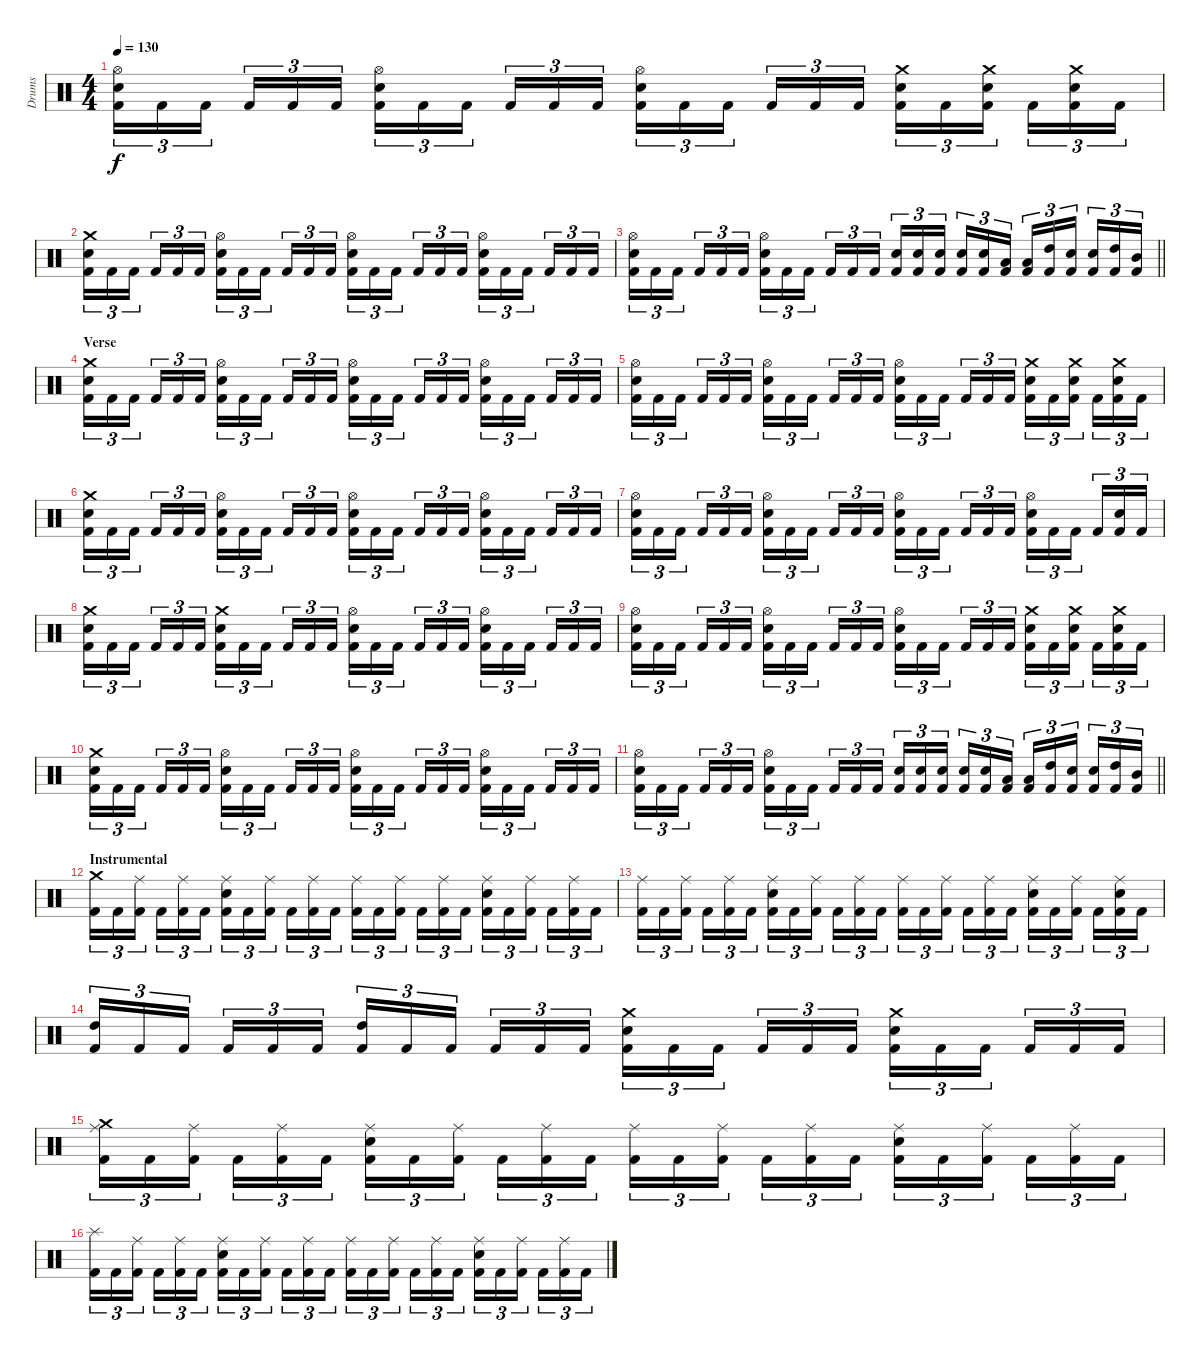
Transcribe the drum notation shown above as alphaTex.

\track ("Drums" "Drums") {instrument percussion}
\staff {score}
\articulation defaults
\ts (4 4)
\tempo 130
\clef neutral
\ks c
("Kick (hit) 2" "Electric Snare (hit)" "Hi-Hat (open)").16{tu (3 2) dy f} "Kick (hit) 2".16{tu (3 2)} "Kick (hit) 2".16{tu (3 2)} "Kick (hit) 2".16{tu (3 2)} "Kick (hit) 2".16{tu (3 2)} "Kick (hit) 2".16{tu (3 2)} ("Kick (hit) 2" "Electric Snare (hit)" "Hi-Hat (open)").16{tu (3 2)} "Kick (hit) 2".16{tu (3 2)} "Kick (hit) 2".16{tu (3 2)} "Kick (hit) 2".16{tu (3 2)} "Kick (hit) 2".16{tu (3 2)} "Kick (hit) 2".16{tu (3 2)} ("Kick (hit) 2" "Electric Snare (hit)" "Hi-Hat (open)").16{tu (3 2)} "Kick (hit) 2".16{tu (3 2)} "Kick (hit) 2".16{tu (3 2)} "Kick (hit) 2".16{tu (3 2)} "Kick (hit) 2".16{tu (3 2)} "Kick (hit) 2".16{tu (3 2)} ("Kick (hit) 2" "Electric Snare (hit)" "Crash medium (hit)").16{tu (3 2)} "Kick (hit) 2".16{tu (3 2)} ("Kick (hit) 2" "Electric Snare (hit)" "Crash medium (hit)").16{tu (3 2)} "Kick (hit) 2".16{tu (3 2)} ("Kick (hit) 2" "Electric Snare (hit)" "Crash medium (hit)").16{tu (3 2)} "Kick (hit) 2".16{tu (3 2)} |
("Kick (hit) 2" "Electric Snare (hit)" "Crash medium (hit)").16{tu (3 2)} "Kick (hit) 2".16{tu (3 2)} "Kick (hit) 2".16{tu (3 2)} "Kick (hit) 2".16{tu (3 2)} "Kick (hit) 2".16{tu (3 2)} "Kick (hit) 2".16{tu (3 2)} ("Kick (hit) 2" "Electric Snare (hit)" "Hi-Hat (open)").16{tu (3 2)} "Kick (hit) 2".16{tu (3 2)} "Kick (hit) 2".16{tu (3 2)} "Kick (hit) 2".16{tu (3 2)} "Kick (hit) 2".16{tu (3 2)} "Kick (hit) 2".16{tu (3 2)} ("Kick (hit) 2" "Electric Snare (hit)" "Hi-Hat (open)").16{tu (3 2)} "Kick (hit) 2".16{tu (3 2)} "Kick (hit) 2".16{tu (3 2)} "Kick (hit) 2".16{tu (3 2)} "Kick (hit) 2".16{tu (3 2)} "Kick (hit) 2".16{tu (3 2)} ("Kick (hit) 2" "Electric Snare (hit)" "Hi-Hat (open)").16{tu (3 2)} "Kick (hit) 2".16{tu (3 2)} "Kick (hit) 2".16{tu (3 2)} "Kick (hit) 2".16{tu (3 2)} "Kick (hit) 2".16{tu (3 2)} "Kick (hit) 2".16{tu (3 2)} |
\barLineRight lightlight
("Kick (hit) 2" "Electric Snare (hit)" "Hi-Hat (open)").16{tu (3 2)} "Kick (hit) 2".16{tu (3 2)} "Kick (hit) 2".16{tu (3 2)} "Kick (hit) 2".16{tu (3 2)} "Kick (hit) 2".16{tu (3 2)} "Kick (hit) 2".16{tu (3 2)} ("Kick (hit) 2" "Electric Snare (hit)" "Hi-Hat (open)").16{tu (3 2)} "Kick (hit) 2".16{tu (3 2)} "Kick (hit) 2".16{tu (3 2)} "Kick (hit) 2".16{tu (3 2)} "Kick (hit) 2".16{tu (3 2)} "Kick (hit) 2".16{tu (3 2)} ("Kick (hit) 2" "Electric Snare (hit)").16{tu (3 2)} ("Kick (hit) 2" "Electric Snare (hit)").16{tu (3 2)} ("Kick (hit) 2" "Electric Snare (hit)").16{tu (3 2)} ("Kick (hit) 2" "Electric Snare (hit)").16{tu (3 2)} ("Kick (hit) 2" "Electric Snare (hit)").16{tu (3 2)} ("Kick (hit) 2" "Low Tom (hit)").16{tu (3 2)} ("Kick (hit) 2" "Low Tom (hit)").16{tu (3 2)} ("Kick (hit) 2" "High Tom (hit)").16{tu (3 2)} ("Kick (hit) 2" "Electric Snare (hit)").16{tu (3 2)} ("Kick (hit) 2" "Electric Snare (hit)").16{tu (3 2)} ("Kick (hit) 2" "High Tom (hit)").16{tu (3 2)} ("Kick (hit) 2" "Mid Tom (hit)").16{tu (3 2)} |
\section ("" "Verse")
("Kick (hit) 2" "Electric Snare (hit)" "Crash medium (hit)").16{tu (3 2)} "Kick (hit) 2".16{tu (3 2)} "Kick (hit) 2".16{tu (3 2)} "Kick (hit) 2".16{tu (3 2)} "Kick (hit) 2".16{tu (3 2)} "Kick (hit) 2".16{tu (3 2)} ("Kick (hit) 2" "Electric Snare (hit)" "Hi-Hat (open)").16{tu (3 2)} "Kick (hit) 2".16{tu (3 2)} "Kick (hit) 2".16{tu (3 2)} "Kick (hit) 2".16{tu (3 2)} "Kick (hit) 2".16{tu (3 2)} "Kick (hit) 2".16{tu (3 2)} ("Kick (hit) 2" "Electric Snare (hit)" "Hi-Hat (open)").16{tu (3 2)} "Kick (hit) 2".16{tu (3 2)} "Kick (hit) 2".16{tu (3 2)} "Kick (hit) 2".16{tu (3 2)} "Kick (hit) 2".16{tu (3 2)} "Kick (hit) 2".16{tu (3 2)} ("Kick (hit) 2" "Electric Snare (hit)" "Hi-Hat (open)").16{tu (3 2)} "Kick (hit) 2".16{tu (3 2)} "Kick (hit) 2".16{tu (3 2)} "Kick (hit) 2".16{tu (3 2)} "Kick (hit) 2".16{tu (3 2)} "Kick (hit) 2".16{tu (3 2)} |
("Kick (hit) 2" "Electric Snare (hit)" "Hi-Hat (open)").16{tu (3 2)} "Kick (hit) 2".16{tu (3 2)} "Kick (hit) 2".16{tu (3 2)} "Kick (hit) 2".16{tu (3 2)} "Kick (hit) 2".16{tu (3 2)} "Kick (hit) 2".16{tu (3 2)} ("Kick (hit) 2" "Electric Snare (hit)" "Hi-Hat (open)").16{tu (3 2)} "Kick (hit) 2".16{tu (3 2)} "Kick (hit) 2".16{tu (3 2)} "Kick (hit) 2".16{tu (3 2)} "Kick (hit) 2".16{tu (3 2)} "Kick (hit) 2".16{tu (3 2)} ("Kick (hit) 2" "Electric Snare (hit)" "Hi-Hat (open)").16{tu (3 2)} "Kick (hit) 2".16{tu (3 2)} "Kick (hit) 2".16{tu (3 2)} "Kick (hit) 2".16{tu (3 2)} "Kick (hit) 2".16{tu (3 2)} "Kick (hit) 2".16{tu (3 2)} ("Kick (hit) 2" "Electric Snare (hit)" "Crash medium (hit)").16{tu (3 2)} "Kick (hit) 2".16{tu (3 2)} ("Kick (hit) 2" "Electric Snare (hit)" "Crash medium (hit)").16{tu (3 2)} "Kick (hit) 2".16{tu (3 2)} ("Kick (hit) 2" "Electric Snare (hit)" "Crash medium (hit)").16{tu (3 2)} "Kick (hit) 2".16{tu (3 2)} |
("Kick (hit) 2" "Electric Snare (hit)" "Crash medium (hit)").16{tu (3 2)} "Kick (hit) 2".16{tu (3 2)} "Kick (hit) 2".16{tu (3 2)} "Kick (hit) 2".16{tu (3 2)} "Kick (hit) 2".16{tu (3 2)} "Kick (hit) 2".16{tu (3 2)} ("Kick (hit) 2" "Electric Snare (hit)" "Hi-Hat (open)").16{tu (3 2)} "Kick (hit) 2".16{tu (3 2)} "Kick (hit) 2".16{tu (3 2)} "Kick (hit) 2".16{tu (3 2)} "Kick (hit) 2".16{tu (3 2)} "Kick (hit) 2".16{tu (3 2)} ("Kick (hit) 2" "Electric Snare (hit)" "Hi-Hat (open)").16{tu (3 2)} "Kick (hit) 2".16{tu (3 2)} "Kick (hit) 2".16{tu (3 2)} "Kick (hit) 2".16{tu (3 2)} "Kick (hit) 2".16{tu (3 2)} "Kick (hit) 2".16{tu (3 2)} ("Kick (hit) 2" "Electric Snare (hit)" "Hi-Hat (open)").16{tu (3 2)} "Kick (hit) 2".16{tu (3 2)} "Kick (hit) 2".16{tu (3 2)} "Kick (hit) 2".16{tu (3 2)} "Kick (hit) 2".16{tu (3 2)} "Kick (hit) 2".16{tu (3 2)} |
("Kick (hit) 2" "Electric Snare (hit)" "Hi-Hat (open)").16{tu (3 2)} "Kick (hit) 2".16{tu (3 2)} "Kick (hit) 2".16{tu (3 2)} "Kick (hit) 2".16{tu (3 2)} "Kick (hit) 2".16{tu (3 2)} "Kick (hit) 2".16{tu (3 2)} ("Kick (hit) 2" "Electric Snare (hit)" "Hi-Hat (open)").16{tu (3 2)} "Kick (hit) 2".16{tu (3 2)} "Kick (hit) 2".16{tu (3 2)} "Kick (hit) 2".16{tu (3 2)} "Kick (hit) 2".16{tu (3 2)} "Kick (hit) 2".16{tu (3 2)} ("Kick (hit) 2" "Electric Snare (hit)" "Hi-Hat (open)").16{tu (3 2)} "Kick (hit) 2".16{tu (3 2)} "Kick (hit) 2".16{tu (3 2)} "Kick (hit) 2".16{tu (3 2)} "Kick (hit) 2".16{tu (3 2)} "Kick (hit) 2".16{tu (3 2)} ("Kick (hit) 2" "Electric Snare (hit)" "Hi-Hat (open)").16{tu (3 2)} "Kick (hit) 2".16{tu (3 2)} "Kick (hit) 2".16{tu (3 2)} "Kick (hit) 2".16{tu (3 2)} ("Kick (hit) 2" "Electric Snare (hit)").16{tu (3 2)} "Kick (hit) 2".16{tu (3 2)} |
("Kick (hit) 2" "Electric Snare (hit)" "Crash medium (hit)").16{tu (3 2)} "Kick (hit) 2".16{tu (3 2)} "Kick (hit) 2".16{tu (3 2)} "Kick (hit) 2".16{tu (3 2)} "Kick (hit) 2".16{tu (3 2)} "Kick (hit) 2".16{tu (3 2)} ("Kick (hit) 2" "Electric Snare (hit)" "Crash medium (hit)").16{tu (3 2)} "Kick (hit) 2".16{tu (3 2)} "Kick (hit) 2".16{tu (3 2)} "Kick (hit) 2".16{tu (3 2)} "Kick (hit) 2".16{tu (3 2)} "Kick (hit) 2".16{tu (3 2)} ("Kick (hit) 2" "Electric Snare (hit)" "Hi-Hat (open)").16{tu (3 2)} "Kick (hit) 2".16{tu (3 2)} "Kick (hit) 2".16{tu (3 2)} "Kick (hit) 2".16{tu (3 2)} "Kick (hit) 2".16{tu (3 2)} "Kick (hit) 2".16{tu (3 2)} ("Kick (hit) 2" "Electric Snare (hit)" "Hi-Hat (open)").16{tu (3 2)} "Kick (hit) 2".16{tu (3 2)} "Kick (hit) 2".16{tu (3 2)} "Kick (hit) 2".16{tu (3 2)} "Kick (hit) 2".16{tu (3 2)} "Kick (hit) 2".16{tu (3 2)} |
("Kick (hit) 2" "Electric Snare (hit)" "Hi-Hat (open)").16{tu (3 2)} "Kick (hit) 2".16{tu (3 2)} "Kick (hit) 2".16{tu (3 2)} "Kick (hit) 2".16{tu (3 2)} "Kick (hit) 2".16{tu (3 2)} "Kick (hit) 2".16{tu (3 2)} ("Kick (hit) 2" "Electric Snare (hit)" "Hi-Hat (open)").16{tu (3 2)} "Kick (hit) 2".16{tu (3 2)} "Kick (hit) 2".16{tu (3 2)} "Kick (hit) 2".16{tu (3 2)} "Kick (hit) 2".16{tu (3 2)} "Kick (hit) 2".16{tu (3 2)} ("Kick (hit) 2" "Electric Snare (hit)" "Hi-Hat (open)").16{tu (3 2)} "Kick (hit) 2".16{tu (3 2)} "Kick (hit) 2".16{tu (3 2)} "Kick (hit) 2".16{tu (3 2)} "Kick (hit) 2".16{tu (3 2)} "Kick (hit) 2".16{tu (3 2)} ("Kick (hit) 2" "Electric Snare (hit)" "Crash medium (hit)").16{tu (3 2)} "Kick (hit) 2".16{tu (3 2)} ("Kick (hit) 2" "Electric Snare (hit)" "Crash medium (hit)").16{tu (3 2)} "Kick (hit) 2".16{tu (3 2)} ("Kick (hit) 2" "Electric Snare (hit)" "Crash medium (hit)").16{tu (3 2)} "Kick (hit) 2".16{tu (3 2)} |
("Kick (hit) 2" "Electric Snare (hit)" "Crash medium (hit)").16{tu (3 2)} "Kick (hit) 2".16{tu (3 2)} "Kick (hit) 2".16{tu (3 2)} "Kick (hit) 2".16{tu (3 2)} "Kick (hit) 2".16{tu (3 2)} "Kick (hit) 2".16{tu (3 2)} ("Kick (hit) 2" "Electric Snare (hit)" "Hi-Hat (open)").16{tu (3 2)} "Kick (hit) 2".16{tu (3 2)} "Kick (hit) 2".16{tu (3 2)} "Kick (hit) 2".16{tu (3 2)} "Kick (hit) 2".16{tu (3 2)} "Kick (hit) 2".16{tu (3 2)} ("Kick (hit) 2" "Electric Snare (hit)" "Hi-Hat (open)").16{tu (3 2)} "Kick (hit) 2".16{tu (3 2)} "Kick (hit) 2".16{tu (3 2)} "Kick (hit) 2".16{tu (3 2)} "Kick (hit) 2".16{tu (3 2)} "Kick (hit) 2".16{tu (3 2)} ("Kick (hit) 2" "Electric Snare (hit)" "Hi-Hat (open)").16{tu (3 2)} "Kick (hit) 2".16{tu (3 2)} "Kick (hit) 2".16{tu (3 2)} "Kick (hit) 2".16{tu (3 2)} "Kick (hit) 2".16{tu (3 2)} "Kick (hit) 2".16{tu (3 2)} |
\barLineRight lightlight
("Kick (hit) 2" "Electric Snare (hit)" "Hi-Hat (open)").16{tu (3 2)} "Kick (hit) 2".16{tu (3 2)} "Kick (hit) 2".16{tu (3 2)} "Kick (hit) 2".16{tu (3 2)} "Kick (hit) 2".16{tu (3 2)} "Kick (hit) 2".16{tu (3 2)} ("Kick (hit) 2" "Electric Snare (hit)" "Hi-Hat (open)").16{tu (3 2)} "Kick (hit) 2".16{tu (3 2)} "Kick (hit) 2".16{tu (3 2)} "Kick (hit) 2".16{tu (3 2)} "Kick (hit) 2".16{tu (3 2)} "Kick (hit) 2".16{tu (3 2)} ("Kick (hit) 2" "Electric Snare (hit)").16{tu (3 2)} ("Kick (hit) 2" "Electric Snare (hit)").16{tu (3 2)} ("Kick (hit) 2" "Electric Snare (hit)").16{tu (3 2)} ("Kick (hit) 2" "Electric Snare (hit)").16{tu (3 2)} ("Kick (hit) 2" "Electric Snare (hit)").16{tu (3 2)} ("Kick (hit) 2" "Low Tom (hit)").16{tu (3 2)} ("Kick (hit) 2" "Low Tom (hit)").16{tu (3 2)} ("Kick (hit) 2" "High Tom (hit)").16{tu (3 2)} ("Kick (hit) 2" "Electric Snare (hit)").16{tu (3 2)} ("Kick (hit) 2" "Electric Snare (hit)").16{tu (3 2)} ("Kick (hit) 2" "High Tom (hit)").16{tu (3 2)} ("Kick (hit) 2" "Mid Tom (hit)").16{tu (3 2)} |
\section ("" "Instrumental")
("Kick (hit) 2" "Crash medium (hit)").16{tu (3 2)} "Kick (hit) 2".16{tu (3 2)} ("Kick (hit) 2" "Ride (middle)").16{tu (3 2)} "Kick (hit) 2".16{tu (3 2)} ("Kick (hit) 2" "Ride (middle)").16{tu (3 2)} "Kick (hit) 2".16{tu (3 2)} ("Kick (hit) 2" "Electric Snare (hit)" "Ride (middle)").16{tu (3 2)} "Kick (hit) 2".16{tu (3 2)} ("Kick (hit) 2" "Ride (middle)").16{tu (3 2)} "Kick (hit) 2".16{tu (3 2)} ("Kick (hit) 2" "Ride (middle)").16{tu (3 2)} "Kick (hit) 2".16{tu (3 2)} ("Kick (hit) 2" "Ride (middle)").16{tu (3 2)} "Kick (hit) 2".16{tu (3 2)} ("Kick (hit) 2" "Ride (middle)").16{tu (3 2)} "Kick (hit) 2".16{tu (3 2)} ("Kick (hit) 2" "Ride (middle)").16{tu (3 2)} "Kick (hit) 2".16{tu (3 2)} ("Kick (hit) 2" "Electric Snare (hit)" "Ride (middle)").16{tu (3 2)} "Kick (hit) 2".16{tu (3 2)} ("Kick (hit) 2" "Ride (middle)").16{tu (3 2)} "Kick (hit) 2".16{tu (3 2)} ("Kick (hit) 2" "Ride (middle)").16{tu (3 2)} "Kick (hit) 2".16{tu (3 2)} |
("Kick (hit) 2" "Ride (middle)").16{tu (3 2)} "Kick (hit) 2".16{tu (3 2)} ("Kick (hit) 2" "Ride (middle)").16{tu (3 2)} "Kick (hit) 2".16{tu (3 2)} ("Kick (hit) 2" "Ride (middle)").16{tu (3 2)} "Kick (hit) 2".16{tu (3 2)} ("Kick (hit) 2" "Electric Snare (hit)" "Ride (middle)").16{tu (3 2)} "Kick (hit) 2".16{tu (3 2)} ("Kick (hit) 2" "Ride (middle)").16{tu (3 2)} "Kick (hit) 2".16{tu (3 2)} ("Kick (hit) 2" "Ride (middle)").16{tu (3 2)} "Kick (hit) 2".16{tu (3 2)} ("Kick (hit) 2" "Ride (middle)").16{tu (3 2)} "Kick (hit) 2".16{tu (3 2)} ("Kick (hit) 2" "Ride (middle)").16{tu (3 2)} "Kick (hit) 2".16{tu (3 2)} ("Kick (hit) 2" "Ride (middle)").16{tu (3 2)} "Kick (hit) 2".16{tu (3 2)} ("Kick (hit) 2" "Electric Snare (hit)" "Ride (middle)").16{tu (3 2)} "Kick (hit) 2".16{tu (3 2)} ("Kick (hit) 2" "Ride (middle)").16{tu (3 2)} "Kick (hit) 2".16{tu (3 2)} ("Kick (hit) 2" "Electric Snare (hit)" "Ride (middle)").16{tu (3 2)} "Kick (hit) 2".16{tu (3 2)} |
("Kick (hit) 2" "High Tom (hit)").16{tu (3 2)} "Kick (hit) 2".16{tu (3 2)} "Kick (hit) 2".16{tu (3 2)} "Kick (hit) 2".16{tu (3 2)} "Kick (hit) 2".16{tu (3 2)} "Kick (hit) 2".16{tu (3 2)} ("Kick (hit) 2" "High Tom (hit)").16{tu (3 2)} "Kick (hit) 2".16{tu (3 2)} "Kick (hit) 2".16{tu (3 2)} "Kick (hit) 2".16{tu (3 2)} "Kick (hit) 2".16{tu (3 2)} "Kick (hit) 2".16{tu (3 2)} ("Kick (hit) 2" "Electric Snare (hit)" "Crash medium (hit)").16{tu (3 2)} "Kick (hit) 2".16{tu (3 2)} "Kick (hit) 2".16{tu (3 2)} "Kick (hit) 2".16{tu (3 2)} "Kick (hit) 2".16{tu (3 2)} "Kick (hit) 2".16{tu (3 2)} ("Kick (hit) 2" "Electric Snare (hit)" "Crash medium (hit)").16{tu (3 2)} "Kick (hit) 2".16{tu (3 2)} "Kick (hit) 2".16{tu (3 2)} "Kick (hit) 2".16{tu (3 2)} "Kick (hit) 2".16{tu (3 2)} "Kick (hit) 2".16{tu (3 2)} |
("Kick (hit) 2" "Crash medium (hit)" "Ride (middle)").16{tu (3 2)} "Kick (hit) 2".16{tu (3 2)} ("Kick (hit) 2" "Ride (middle)").16{tu (3 2)} "Kick (hit) 2".16{tu (3 2)} ("Kick (hit) 2" "Ride (middle)").16{tu (3 2)} "Kick (hit) 2".16{tu (3 2)} ("Kick (hit) 2" "Electric Snare (hit)" "Ride (middle)").16{tu (3 2)} "Kick (hit) 2".16{tu (3 2)} ("Kick (hit) 2" "Ride (middle)").16{tu (3 2)} "Kick (hit) 2".16{tu (3 2)} ("Kick (hit) 2" "Ride (middle)").16{tu (3 2)} "Kick (hit) 2".16{tu (3 2)} ("Kick (hit) 2" "Ride (middle)").16{tu (3 2)} "Kick (hit) 2".16{tu (3 2)} ("Kick (hit) 2" "Ride (middle)").16{tu (3 2)} "Kick (hit) 2".16{tu (3 2)} ("Kick (hit) 2" "Ride (middle)").16{tu (3 2)} "Kick (hit) 2".16{tu (3 2)} ("Kick (hit) 2" "Electric Snare (hit)" "Ride (middle)").16{tu (3 2)} "Kick (hit) 2".16{tu (3 2)} ("Kick (hit) 2" "Ride (middle)").16{tu (3 2)} "Kick (hit) 2".16{tu (3 2)} ("Kick (hit) 2" "Ride (middle)").16{tu (3 2)} "Kick (hit) 2".16{tu (3 2)} |
("Kick (hit) 2" "Splash (hit)").16{tu (3 2)} "Kick (hit) 2".16{tu (3 2)} ("Kick (hit) 2" "Ride (middle)").16{tu (3 2)} "Kick (hit) 2".16{tu (3 2)} ("Kick (hit) 2" "Ride (middle)").16{tu (3 2)} "Kick (hit) 2".16{tu (3 2)} ("Kick (hit) 2" "Electric Snare (hit)" "Ride (middle)").16{tu (3 2)} "Kick (hit) 2".16{tu (3 2)} ("Kick (hit) 2" "Ride (middle)").16{tu (3 2)} "Kick (hit) 2".16{tu (3 2)} ("Kick (hit) 2" "Ride (middle)").16{tu (3 2)} "Kick (hit) 2".16{tu (3 2)} ("Kick (hit) 2" "Ride (middle)").16{tu (3 2)} "Kick (hit) 2".16{tu (3 2)} ("Kick (hit) 2" "Ride (middle)").16{tu (3 2)} "Kick (hit) 2".16{tu (3 2)} ("Kick (hit) 2" "Ride (middle)").16{tu (3 2)} "Kick (hit) 2".16{tu (3 2)} ("Kick (hit) 2" "Electric Snare (hit)" "Ride (middle)").16{tu (3 2)} "Kick (hit) 2".16{tu (3 2)} ("Kick (hit) 2" "Ride (middle)").16{tu (3 2)} "Kick (hit) 2".16{tu (3 2)} ("Kick (hit) 2" "Ride (middle)").16{tu (3 2)} "Kick (hit) 2".16{tu (3 2)}
